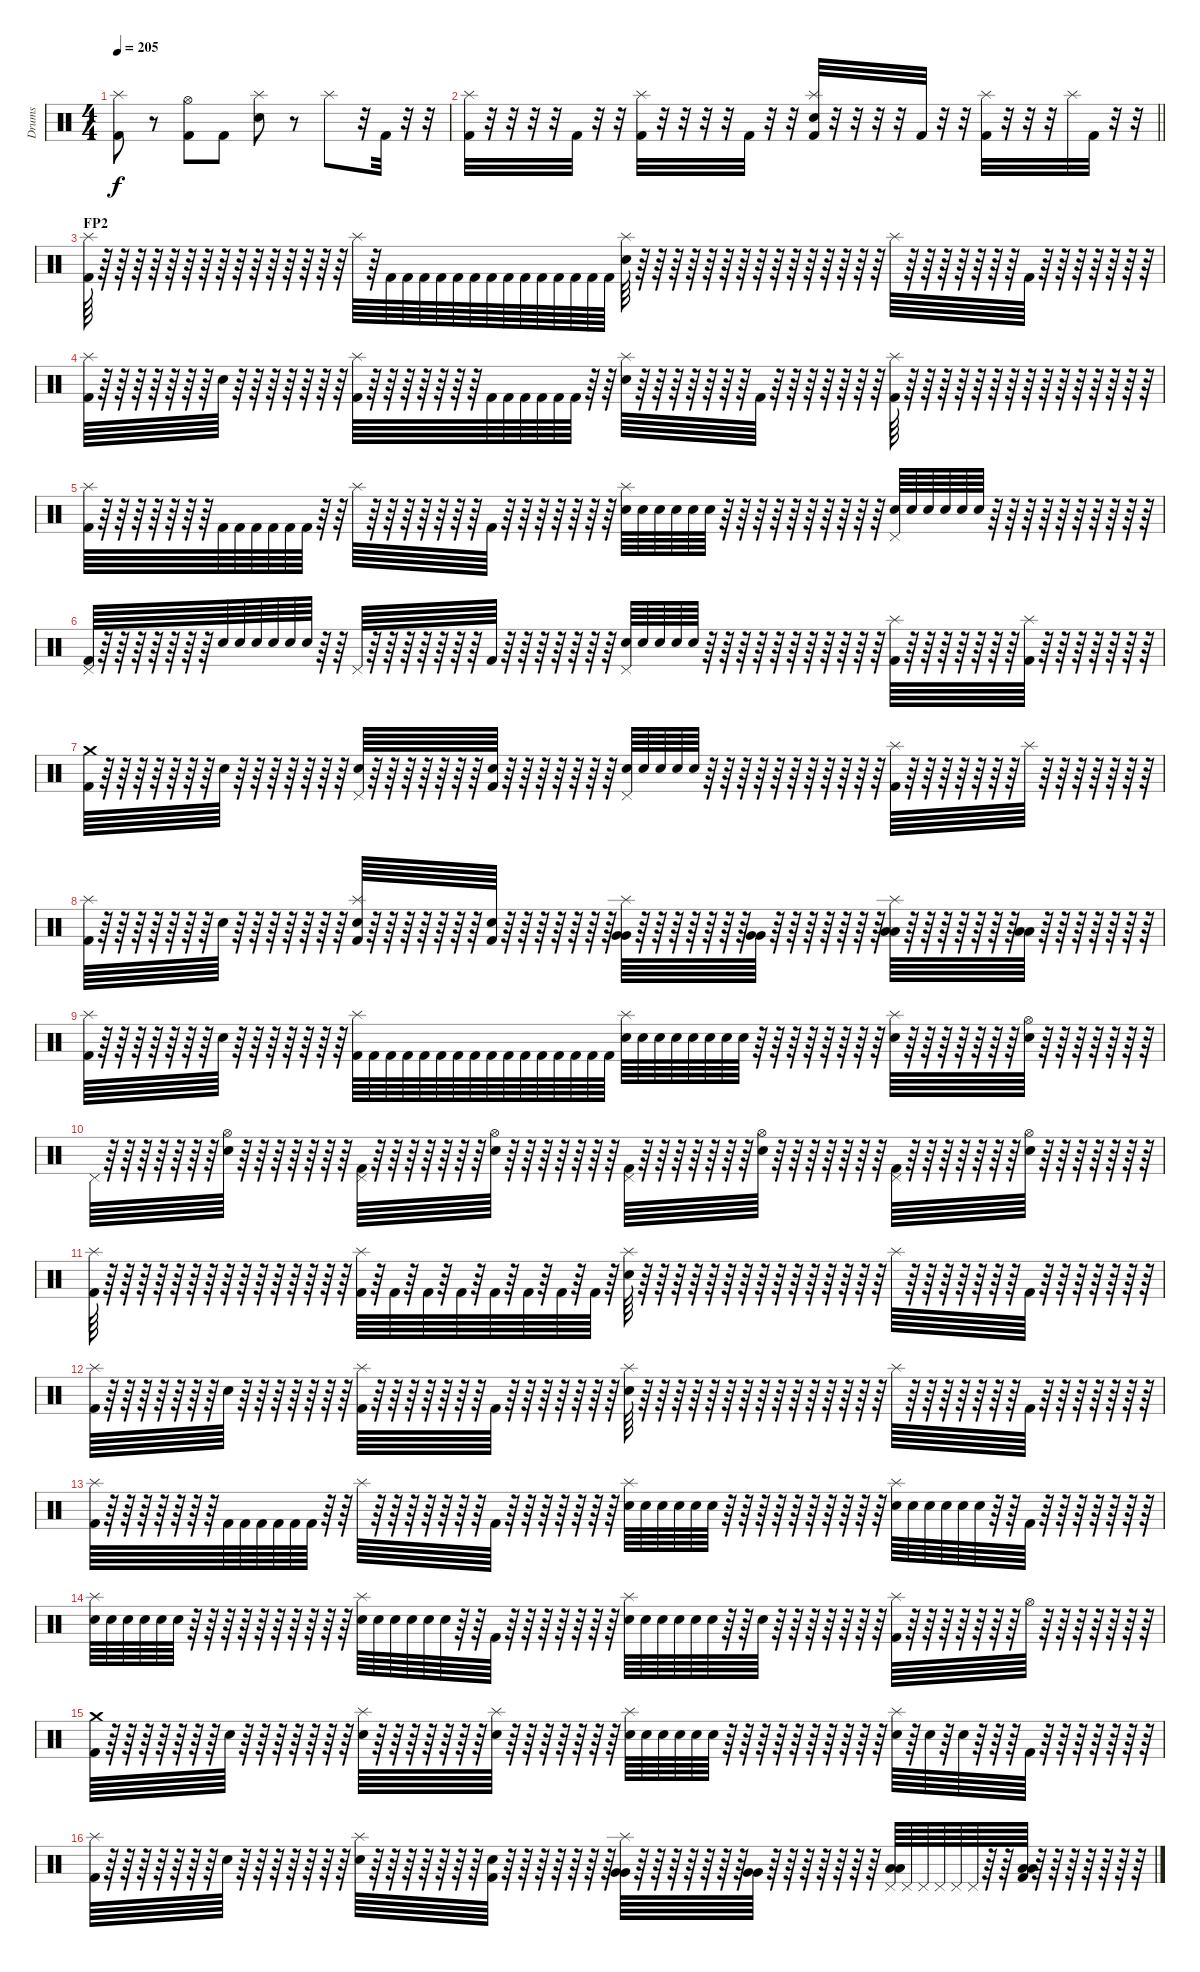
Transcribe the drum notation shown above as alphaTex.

\track ("Drums" "Drums") {instrument percussion}
\staff {score}
\articulation defaults
\ts (4 4)
\tempo 205
\clef neutral
\ks c
("Kick (hit) 2" "Splash (hit)").8{dy f} r.8 ("Kick (hit) 2" "Hi-Hat (open)").8 "Kick (hit) 2".8 ("Splash (hit)" "Snare (hit) 2").8 r.8 "Splash (hit)".8 r.32 "Kick (hit) 2".32 r.32 r.32 |
\barLineRight lightlight
("Kick (hit) 2" "Splash (hit)").32 r.32 r.32 r.32 r.32 "Kick (hit) 2".32 r.32 r.32 ("Kick (hit) 2" "Splash (hit)").32 r.32 r.32 r.32 r.32 "Kick (hit) 2".32 r.32 r.32 ("Kick (hit) 2" "Splash (hit)" "Snare (hit) 2").32 r.32 r.32 r.32 r.32 "Kick (hit) 2".32 r.32 r.32 ("Kick (hit) 2" "Splash (hit)").32 r.32 r.32 r.32 "Splash (hit)".32 "Kick (hit) 2".32 r.32 r.32 |
\section ("" "FP2")
("Kick (hit) 2" "Splash (hit)").64 r.64 r.64 r.64 r.64 r.64 r.64 r.64 r.64 r.64 r.64 r.64 r.64 r.64 r.64 r.64 "Splash (hit)".64 r.64 "Kick (hit) 2".64 "Kick (hit) 2".64 "Kick (hit) 2".64 "Kick (hit) 2".64 "Kick (hit) 2".64 "Kick (hit) 2".64 "Kick (hit) 2".64 "Kick (hit) 2".64 "Kick (hit) 2".64 "Kick (hit) 2".64 "Kick (hit) 2".64 "Kick (hit) 2".64 "Kick (hit) 2".64 "Kick (hit) 2".64 ("Splash (hit)" "Snare (hit) 2").64 r.64 r.64 r.64 r.64 r.64 r.64 r.64 r.64 r.64 r.64 r.64 r.64 r.64 r.64 r.64 "Splash (hit)".64 r.64 r.64 r.64 r.64 r.64 r.64 r.64 "Kick (hit) 2".64 r.64 r.64 r.64 r.64 r.64 r.64 r.64 |
("Kick (hit) 2" "Splash (hit)").64 r.64 r.64 r.64 r.64 r.64 r.64 r.64 "Snare (hit) 2".64 r.64 r.64 r.64 r.64 r.64 r.64 r.64 ("Kick (hit) 2" "Splash (hit)").64 r.64 r.64 r.64 r.64 r.64 r.64 r.64 "Kick (hit) 2".64 "Kick (hit) 2".64 "Kick (hit) 2".64 "Kick (hit) 2".64 "Kick (hit) 2".64 "Kick (hit) 2".64 r.64 r.64 ("Splash (hit)" "Snare (hit) 2").64 r.64 r.64 r.64 r.64 r.64 r.64 r.64 "Kick (hit) 2".64 r.64 r.64 r.64 r.64 r.64 r.64 r.64 ("Kick (hit) 2" "Splash (hit)").64 r.64 r.64 r.64 r.64 r.64 r.64 r.64 r.64 r.64 r.64 r.64 r.64 r.64 r.64 r.64 |
("Kick (hit) 2" "Splash (hit)").64 r.64 r.64 r.64 r.64 r.64 r.64 r.64 "Kick (hit) 2".64 "Kick (hit) 2".64 "Kick (hit) 2".64 "Kick (hit) 2".64 "Kick (hit) 2".64 "Kick (hit) 2".64 r.64 r.64 "Splash (hit)".64 r.64 r.64 r.64 r.64 r.64 r.64 r.64 "Kick (hit) 2".64 r.64 r.64 r.64 r.64 r.64 r.64 r.64 ("Splash (hit)" "Snare (hit) 2").64 "Snare (hit) 2".64 "Snare (hit) 2".64 "Snare (hit) 2".64 "Snare (hit) 2".64 "Snare (hit) 2".64 r.64 r.64 r.64 r.64 r.64 r.64 r.64 r.64 r.64 r.64 ("Pedal Hi-Hat (hit)" "Snare (hit) 2").64 "Snare (hit) 2".64 "Snare (hit) 2".64 "Snare (hit) 2".64 "Snare (hit) 2".64 "Snare (hit) 2".64 r.64 r.64 r.64 r.64 r.64 r.64 r.64 r.64 r.64 r.64 |
("Kick (hit) 2" "Pedal Hi-Hat (hit)").64 r.64 r.64 r.64 r.64 r.64 r.64 r.64 "Snare (hit) 2".64 "Snare (hit) 2".64 "Snare (hit) 2".64 "Snare (hit) 2".64 "Snare (hit) 2".64 "Snare (hit) 2".64 r.64 r.64 "Pedal Hi-Hat (hit)".64 r.64 r.64 r.64 r.64 r.64 r.64 r.64 "Kick (hit) 2".64 r.64 r.64 r.64 r.64 r.64 r.64 r.64 ("Pedal Hi-Hat (hit)" "Snare (hit) 2").64 "Snare (hit) 2".64 "Snare (hit) 2".64 "Snare (hit) 2".64 "Snare (hit) 2".64 r.64 r.64 r.64 r.64 r.64 r.64 r.64 r.64 r.64 r.64 r.64 ("Kick (hit) 2" "Splash (hit)").64 r.64 r.64 r.64 r.64 r.64 r.64 r.64 ("Kick (hit) 2" "Splash (hit)").64 r.64 r.64 r.64 r.64 r.64 r.64 r.64 |
("Kick (hit) 2" "Crash medium (hit)").64 r.64 r.64 r.64 r.64 r.64 r.64 r.64 "Snare (hit) 2".64 r.64 r.64 r.64 r.64 r.64 r.64 r.64 ("Pedal Hi-Hat (hit)" "Snare (hit) 2").64 r.64 r.64 r.64 r.64 r.64 r.64 r.64 ("Kick (hit) 2" "Snare (hit) 2").64 r.64 r.64 r.64 r.64 r.64 r.64 r.64 ("Pedal Hi-Hat (hit)" "Snare (hit) 2").64 "Snare (hit) 2".64 "Snare (hit) 2".64 "Snare (hit) 2".64 "Snare (hit) 2".64 r.64 r.64 r.64 r.64 r.64 r.64 r.64 r.64 r.64 r.64 r.64 ("Kick (hit) 2" "Splash (hit)").64 r.64 r.64 r.64 r.64 r.64 r.64 r.64 "Splash (hit)".64 r.64 r.64 r.64 r.64 r.64 r.64 r.64 |
("Kick (hit) 2" "Splash (hit)").64 r.64 r.64 r.64 r.64 r.64 r.64 r.64 "Snare (hit) 2".64 r.64 r.64 r.64 r.64 r.64 r.64 r.64 ("Kick (hit) 2" "Splash (hit)" "Snare (hit) 2").64 r.64 r.64 r.64 r.64 r.64 r.64 r.64 ("Kick (hit) 2" "Snare (hit) 2").64 r.64 r.64 r.64 r.64 r.64 r.64 r.64 ("Splash (hit)" "Very Low Tom (hit)" "Very Low Tom (hit)").64 r.64 r.64 r.64 r.64 r.64 r.64 r.64 ("Very Low Tom (hit)" "Very Low Tom (hit)").64 r.64 r.64 r.64 r.64 r.64 r.64 r.64 ("Splash (hit)" "Low Floor Tom (hit)" "Low Floor Tom (hit)").64 r.64 r.64 r.64 r.64 r.64 r.64 r.64 ("Low Floor Tom (hit)" "Low Floor Tom (hit)").64 r.64 r.64 r.64 r.64 r.64 r.64 r.64 |
("Kick (hit) 2" "Splash (hit)").64 r.64 r.64 r.64 r.64 r.64 r.64 r.64 "Snare (hit) 2".64 r.64 r.64 r.64 r.64 r.64 r.64 r.64 ("Kick (hit) 2" "Splash (hit)").64 "Kick (hit) 2".64 "Kick (hit) 2".64 "Kick (hit) 2".64 "Kick (hit) 2".64 "Kick (hit) 2".64 "Kick (hit) 2".64 "Kick (hit) 2".64 "Kick (hit) 2".64 "Kick (hit) 2".64 "Kick (hit) 2".64 "Kick (hit) 2".64 "Kick (hit) 2".64 "Kick (hit) 2".64 "Kick (hit) 2".64 "Kick (hit) 2".64 ("Splash (hit)" "Snare (hit) 2").64 "Snare (hit) 2".64 "Snare (hit) 2".64 "Snare (hit) 2".64 "Snare (hit) 2".64 "Snare (hit) 2".64 "Snare (hit) 2".64 "Snare (hit) 2".64 r.64 r.64 r.64 r.64 r.64 r.64 r.64 r.64 ("Splash (hit)" "Snare (hit) 2").64 r.64 r.64 r.64 r.64 r.64 r.64 r.64 ("Hi-Hat (open)" "Snare (hit) 2").64 r.64 r.64 r.64 r.64 r.64 r.64 r.64 |
"Pedal Hi-Hat (hit)".64 r.64 r.64 r.64 r.64 r.64 r.64 r.64 ("Hi-Hat (open)" "Snare (hit) 2").64 r.64 r.64 r.64 r.64 r.64 r.64 r.64 ("Kick (hit) 2" "Pedal Hi-Hat (hit)").64 r.64 r.64 r.64 r.64 r.64 r.64 r.64 ("Hi-Hat (open)" "Snare (hit) 2").64 r.64 r.64 r.64 r.64 r.64 r.64 r.64 ("Kick (hit) 2" "Pedal Hi-Hat (hit)").64 r.64 r.64 r.64 r.64 r.64 r.64 r.64 ("Hi-Hat (open)" "Snare (hit) 2").64 r.64 r.64 r.64 r.64 r.64 r.64 r.64 ("Kick (hit) 2" "Pedal Hi-Hat (hit)").64 r.64 r.64 r.64 r.64 r.64 r.64 r.64 ("Hi-Hat (open)" "Snare (hit) 2").64 r.64 r.64 r.64 r.64 r.64 r.64 r.64 |
("Kick (hit) 2" "Splash (hit)").64 r.64 r.64 r.64 r.64 r.64 r.64 r.64 r.64 r.64 r.64 r.64 r.64 r.64 r.64 r.64 ("Kick (hit) 2" "Splash (hit)").64 r.64 "Kick (hit) 2".64 r.64 "Kick (hit) 2".64 r.64 "Kick (hit) 2".64 r.64 "Kick (hit) 2".64 r.64 "Kick (hit) 2".64 r.64 "Kick (hit) 2".64 r.64 "Kick (hit) 2".64 r.64 ("Splash (hit)" "Snare (hit) 2").64 r.64 r.64 r.64 r.64 r.64 r.64 r.64 r.64 r.64 r.64 r.64 r.64 r.64 r.64 r.64 "Splash (hit)".64 r.64 r.64 r.64 r.64 r.64 r.64 r.64 "Kick (hit) 2".64 r.64 r.64 r.64 r.64 r.64 r.64 r.64 |
("Kick (hit) 2" "Splash (hit)").64 r.64 r.64 r.64 r.64 r.64 r.64 r.64 "Snare (hit) 2".64 r.64 r.64 r.64 r.64 r.64 r.64 r.64 ("Kick (hit) 2" "Splash (hit)").64 r.64 r.64 r.64 r.64 r.64 r.64 r.64 "Kick (hit) 2".64 r.64 r.64 r.64 r.64 r.64 r.64 r.64 ("Splash (hit)" "Snare (hit) 2").64 r.64 r.64 r.64 r.64 r.64 r.64 r.64 r.64 r.64 r.64 r.64 r.64 r.64 r.64 r.64 "Splash (hit)".64 r.64 r.64 r.64 r.64 r.64 r.64 r.64 "Kick (hit) 2".64 r.64 r.64 r.64 r.64 r.64 r.64 r.64 |
("Kick (hit) 2" "Splash (hit)").64 r.64 r.64 r.64 r.64 r.64 r.64 r.64 "Kick (hit) 2".64 "Kick (hit) 2".64 "Kick (hit) 2".64 "Kick (hit) 2".64 "Kick (hit) 2".64 "Kick (hit) 2".64 r.64 r.64 "Splash (hit)".64 r.64 r.64 r.64 r.64 r.64 r.64 r.64 "Kick (hit) 2".64 r.64 r.64 r.64 r.64 r.64 r.64 r.64 ("Splash (hit)" "Snare (hit) 2").64 "Snare (hit) 2".64 "Snare (hit) 2".64 "Snare (hit) 2".64 "Snare (hit) 2".64 "Snare (hit) 2".64 r.64 r.64 r.64 r.64 r.64 r.64 r.64 r.64 r.64 r.64 ("Splash (hit)" "Snare (hit) 2").64 "Snare (hit) 2".64 "Snare (hit) 2".64 "Snare (hit) 2".64 "Snare (hit) 2".64 "Snare (hit) 2".64 r.64 r.64 "Kick (hit) 2".64 r.64 r.64 r.64 r.64 r.64 r.64 r.64 |
("Splash (hit)" "Snare (hit) 2").64 "Snare (hit) 2".64 "Snare (hit) 2".64 "Snare (hit) 2".64 "Snare (hit) 2".64 "Snare (hit) 2".64 r.64 r.64 r.64 r.64 r.64 r.64 r.64 r.64 r.64 r.64 ("Splash (hit)" "Snare (hit) 2").64 "Snare (hit) 2".64 "Snare (hit) 2".64 "Snare (hit) 2".64 "Snare (hit) 2".64 "Snare (hit) 2".64 r.64 r.64 "Kick (hit) 2".64 r.64 r.64 r.64 r.64 r.64 r.64 r.64 ("Splash (hit)" "Snare (hit) 2").64 "Snare (hit) 2".64 "Snare (hit) 2".64 "Snare (hit) 2".64 "Snare (hit) 2".64 "Snare (hit) 2".64 r.64 r.64 "Snare (hit) 2".64 r.64 r.64 r.64 r.64 r.64 r.64 r.64 ("Kick (hit) 2" "Splash (hit)").64 r.64 r.64 r.64 r.64 r.64 r.64 r.64 "Hi-Hat (open)".64 r.64 r.64 r.64 r.64 r.64 r.64 r.64 |
("Kick (hit) 2" "Crash medium (hit)").64 r.64 r.64 r.64 r.64 r.64 r.64 r.64 "Snare (hit) 2".64 r.64 r.64 r.64 r.64 r.64 r.64 r.64 ("Snare (hit) 2" "Splash (hit)").64 r.64 r.64 r.64 r.64 r.64 r.64 r.64 ("Snare (hit) 2" "Splash (hit)").64 r.64 r.64 r.64 r.64 r.64 r.64 r.64 ("Splash (hit)" "Snare (hit) 2").64 "Snare (hit) 2".64 "Snare (hit) 2".64 "Snare (hit) 2".64 "Snare (hit) 2".64 "Snare (hit) 2".64 r.64 r.64 r.64 r.64 r.64 r.64 r.64 r.64 r.64 r.64 ("Splash (hit)" "Snare (hit) 2").64 r.64 "Snare (hit) 2".64 r.64 "Snare (hit) 2".64 r.64 r.64 r.64 "Kick (hit) 2".64 r.64 r.64 r.64 r.64 r.64 r.64 r.64 |
("Kick (hit) 2" "Splash (hit)").64 r.64 r.64 r.64 r.64 r.64 r.64 r.64 "Snare (hit) 2".64 r.64 r.64 r.64 r.64 r.64 r.64 r.64 ("Splash (hit)" "Electric Snare (hit)").64 r.64 r.64 r.64 r.64 r.64 r.64 r.64 ("Kick (hit) 2" "Electric Snare (hit)").64 r.64 r.64 r.64 r.64 r.64 r.64 r.64 ("Splash (hit)" "Very Low Tom (hit)" "Very Low Tom (hit)").64 r.64 r.64 r.64 r.64 r.64 r.64 r.64 ("Very Low Tom (hit)" "Very Low Tom (hit)").64 r.64 r.64 r.64 r.64 r.64 r.64 r.64 ("Pedal Hi-Hat (hit)" "Low Floor Tom (hit)" "Low Floor Tom (hit)").64 "Pedal Hi-Hat (hit)".64 "Pedal Hi-Hat (hit)".64 "Pedal Hi-Hat (hit)".64 "Pedal Hi-Hat (hit)".64 "Pedal Hi-Hat (hit)".64 r.64 r.64 ("Kick (hit) 2" "Low Floor Tom (hit)" "Low Floor Tom (hit)").64 r.64 r.64 r.64 r.64 r.64 r.64 r.64
